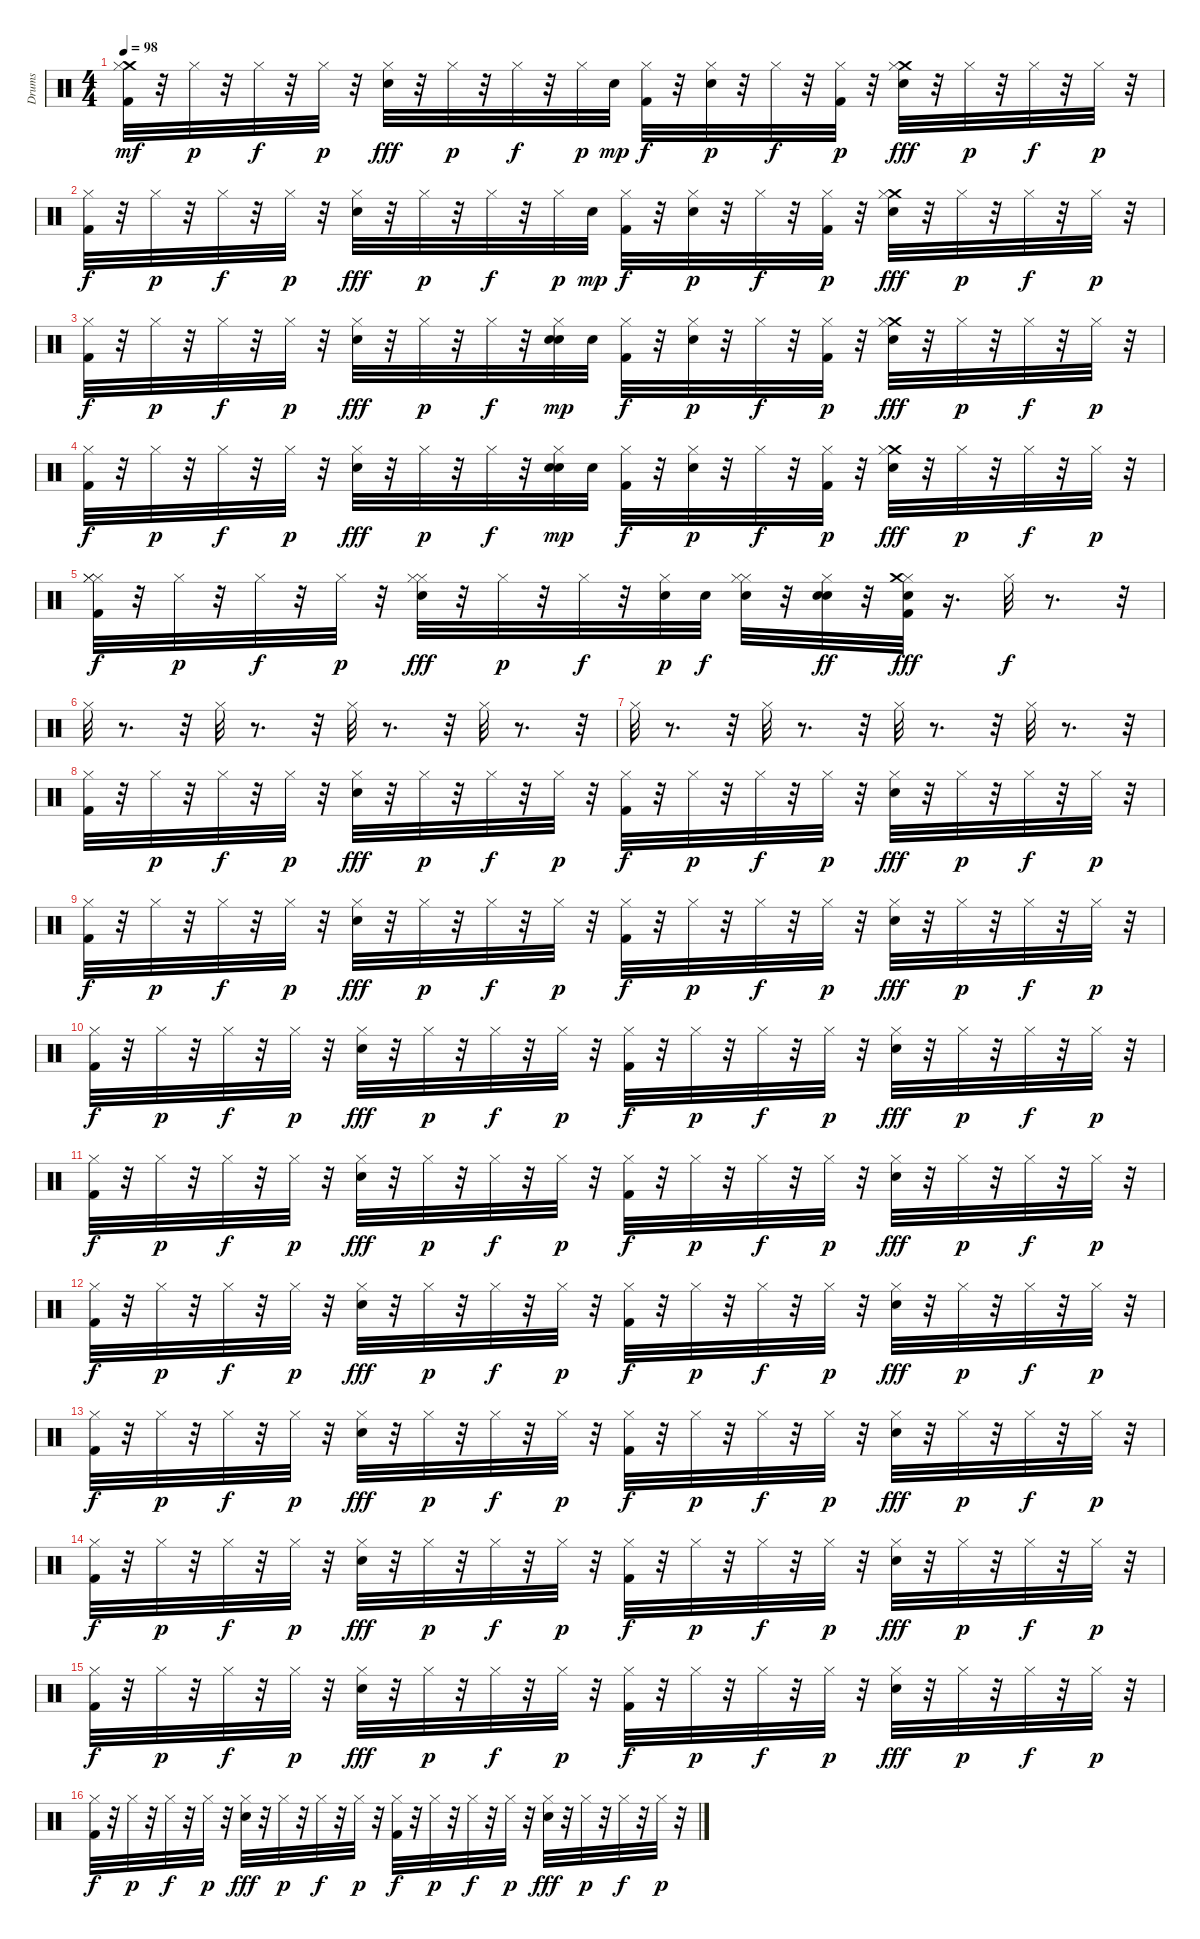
\track ("Drums" "Drums") {instrument percussion}
\staff {score}
\articulation defaults
\ts (4 4)
\tempo 98
\clef neutral
\ks c
("Crash medium (hit)" "Hi-Hat (closed)" "Kick (hit) 2").32{dy mf} r.32 "Hi-Hat (closed)".32{dy p} r.32 "Hi-Hat (closed)".32{dy f} r.32 "Hi-Hat (closed)".32{dy p} r.32 ("Hi-Hat (closed)" "Electric Snare (hit)").32{dy fff} r.32 "Hi-Hat (closed)".32{dy p} r.32 "Hi-Hat (closed)".32{dy f} r.32 "Hi-Hat (closed)".32{dy p} "Electric Snare (hit)".32{dy mp} ("Hi-Hat (closed)" "Kick (hit) 2").32{dy f} r.32 ("Hi-Hat (closed)" "Electric Snare (hit)").32{dy p} r.32 "Hi-Hat (closed)".32{dy f} r.32 ("Hi-Hat (closed)" "Kick (hit) 2").32{dy p} r.32 ("Crash medium (hit)" "Hi-Hat (closed)" "Electric Snare (hit)").32{dy fff} r.32 "Hi-Hat (closed)".32{dy p} r.32 "Hi-Hat (closed)".32{dy f} r.32 "Hi-Hat (closed)".32{dy p} r.32 |
("Hi-Hat (closed)" "Kick (hit) 2").32{dy f} r.32 "Hi-Hat (closed)".32{dy p} r.32 "Hi-Hat (closed)".32{dy f} r.32 "Hi-Hat (closed)".32{dy p} r.32 ("Hi-Hat (closed)" "Electric Snare (hit)").32{dy fff} r.32 "Hi-Hat (closed)".32{dy p} r.32 "Hi-Hat (closed)".32{dy f} r.32 "Hi-Hat (closed)".32{dy p} "Electric Snare (hit)".32{dy mp} ("Hi-Hat (closed)" "Kick (hit) 2").32{dy f} r.32 ("Hi-Hat (closed)" "Electric Snare (hit)").32{dy p} r.32 "Hi-Hat (closed)".32{dy f} r.32 ("Hi-Hat (closed)" "Kick (hit) 2").32{dy p} r.32 ("Crash medium (hit)" "Hi-Hat (closed)" "Electric Snare (hit)").32{dy fff} r.32 "Hi-Hat (closed)".32{dy p} r.32 "Hi-Hat (closed)".32{dy f} r.32 "Hi-Hat (closed)".32{dy p} r.32 |
("Hi-Hat (closed)" "Kick (hit) 2").32{dy f} r.32 "Hi-Hat (closed)".32{dy p} r.32 "Hi-Hat (closed)".32{dy f} r.32 "Hi-Hat (closed)".32{dy p} r.32 ("Hi-Hat (closed)" "Electric Snare (hit)").32{dy fff} r.32 "Hi-Hat (closed)".32{dy p} r.32 "Hi-Hat (closed)".32{dy f} r.32 ("Hi-Hat (closed)" "Electric Snare (hit)" "Electric Snare (hit)").32{dy mp} "Electric Snare (hit)".32 ("Hi-Hat (closed)" "Kick (hit) 2").32{dy f} r.32 ("Hi-Hat (closed)" "Electric Snare (hit)").32{dy p} r.32 "Hi-Hat (closed)".32{dy f} r.32 ("Hi-Hat (closed)" "Kick (hit) 2").32{dy p} r.32 ("Crash medium (hit)" "Hi-Hat (closed)" "Electric Snare (hit)").32{dy fff} r.32 "Hi-Hat (closed)".32{dy p} r.32 "Hi-Hat (closed)".32{dy f} r.32 "Hi-Hat (closed)".32{dy p} r.32 |
("Hi-Hat (closed)" "Kick (hit) 2").32{dy f} r.32 "Hi-Hat (closed)".32{dy p} r.32 "Hi-Hat (closed)".32{dy f} r.32 "Hi-Hat (closed)".32{dy p} r.32 ("Hi-Hat (closed)" "Electric Snare (hit)").32{dy fff} r.32 "Hi-Hat (closed)".32{dy p} r.32 "Hi-Hat (closed)".32{dy f} r.32 ("Hi-Hat (closed)" "Electric Snare (hit)" "Electric Snare (hit)").32{dy mp} "Electric Snare (hit)".32 ("Hi-Hat (closed)" "Kick (hit) 2").32{dy f} r.32 ("Hi-Hat (closed)" "Electric Snare (hit)").32{dy p} r.32 "Hi-Hat (closed)".32{dy f} r.32 ("Hi-Hat (closed)" "Kick (hit) 2").32{dy p} r.32 ("Crash medium (hit)" "Hi-Hat (closed)" "Electric Snare (hit)").32{dy fff} r.32 "Hi-Hat (closed)".32{dy p} r.32 "Hi-Hat (closed)".32{dy f} r.32 "Hi-Hat (closed)".32{dy p} r.32 |
("Hi-Hat (closed)" "Hi-Hat (closed)" "Kick (hit) 2" "Hi-Hat (closed)").32{dy f} r.32 "Hi-Hat (closed)".32{dy p} r.32 "Hi-Hat (closed)".32{dy f} r.32 "Hi-Hat (closed)".32{dy p} r.32 ("Hi-Hat (closed)" "Electric Snare (hit)" "Hi-Hat (closed)").32{dy fff} r.32 "Hi-Hat (closed)".32{dy p} r.32 "Hi-Hat (closed)".32{dy f} r.32 ("Hi-Hat (closed)" "Snare (hit) 2").32{dy p} "Snare (hit) 2".32{dy f} ("Hi-Hat (closed)" "Hi-Hat (closed)" "Electric Snare (hit)").32 r.32 ("Hi-Hat (closed)" "Electric Snare (hit)" "Electric Snare (hit)").32{dy ff} r.32 ("Hi-Hat (closed)" "Snare (hit) 2" "Crash medium (hit)" "Kick (hit) 2").32{dy fff} r.16{d} "Hi-Hat (closed)".32{dy f} r.8{d} r.32 |
"Hi-Hat (closed)".32 r.8{d} r.32 "Hi-Hat (closed)".32 r.8{d} r.32 "Hi-Hat (closed)".32 r.8{d} r.32 "Hi-Hat (closed)".32 r.8{d} r.32 |
"Hi-Hat (closed)".32 r.8{d} r.32 "Hi-Hat (closed)".32 r.8{d} r.32 "Hi-Hat (closed)".32 r.8{d} r.32 "Hi-Hat (closed)".32 r.8{d} r.32 |
("Hi-Hat (closed)" "Kick (hit) 2").32 r.32 "Hi-Hat (closed)".32{dy p} r.32 "Hi-Hat (closed)".32{dy f} r.32 "Hi-Hat (closed)".32{dy p} r.32 ("Hi-Hat (closed)" "Electric Snare (hit)").32{dy fff} r.32 "Hi-Hat (closed)".32{dy p} r.32 "Hi-Hat (closed)".32{dy f} r.32 "Hi-Hat (closed)".32{dy p} r.32 ("Hi-Hat (closed)" "Kick (hit) 2").32{dy f} r.32 "Hi-Hat (closed)".32{dy p} r.32 "Hi-Hat (closed)".32{dy f} r.32 "Hi-Hat (closed)".32{dy p} r.32 ("Hi-Hat (closed)" "Electric Snare (hit)").32{dy fff} r.32 "Hi-Hat (closed)".32{dy p} r.32 "Hi-Hat (closed)".32{dy f} r.32 "Hi-Hat (closed)".32{dy p} r.32 |
("Hi-Hat (closed)" "Kick (hit) 2").32{dy f} r.32 "Hi-Hat (closed)".32{dy p} r.32 "Hi-Hat (closed)".32{dy f} r.32 "Hi-Hat (closed)".32{dy p} r.32 ("Hi-Hat (closed)" "Electric Snare (hit)").32{dy fff} r.32 "Hi-Hat (closed)".32{dy p} r.32 "Hi-Hat (closed)".32{dy f} r.32 "Hi-Hat (closed)".32{dy p} r.32 ("Hi-Hat (closed)" "Kick (hit) 2").32{dy f} r.32 "Hi-Hat (closed)".32{dy p} r.32 "Hi-Hat (closed)".32{dy f} r.32 "Hi-Hat (closed)".32{dy p} r.32 ("Hi-Hat (closed)" "Electric Snare (hit)").32{dy fff} r.32 "Hi-Hat (closed)".32{dy p} r.32 "Hi-Hat (closed)".32{dy f} r.32 "Hi-Hat (closed)".32{dy p} r.32 |
("Hi-Hat (closed)" "Kick (hit) 2").32{dy f} r.32 "Hi-Hat (closed)".32{dy p} r.32 "Hi-Hat (closed)".32{dy f} r.32 "Hi-Hat (closed)".32{dy p} r.32 ("Hi-Hat (closed)" "Electric Snare (hit)").32{dy fff} r.32 "Hi-Hat (closed)".32{dy p} r.32 "Hi-Hat (closed)".32{dy f} r.32 "Hi-Hat (closed)".32{dy p} r.32 ("Hi-Hat (closed)" "Kick (hit) 2").32{dy f} r.32 "Hi-Hat (closed)".32{dy p} r.32 "Hi-Hat (closed)".32{dy f} r.32 "Hi-Hat (closed)".32{dy p} r.32 ("Hi-Hat (closed)" "Electric Snare (hit)").32{dy fff} r.32 "Hi-Hat (closed)".32{dy p} r.32 "Hi-Hat (closed)".32{dy f} r.32 "Hi-Hat (closed)".32{dy p} r.32 |
("Hi-Hat (closed)" "Kick (hit) 2").32{dy f} r.32 "Hi-Hat (closed)".32{dy p} r.32 "Hi-Hat (closed)".32{dy f} r.32 "Hi-Hat (closed)".32{dy p} r.32 ("Hi-Hat (closed)" "Electric Snare (hit)").32{dy fff} r.32 "Hi-Hat (closed)".32{dy p} r.32 "Hi-Hat (closed)".32{dy f} r.32 "Hi-Hat (closed)".32{dy p} r.32 ("Hi-Hat (closed)" "Kick (hit) 2").32{dy f} r.32 "Hi-Hat (closed)".32{dy p} r.32 "Hi-Hat (closed)".32{dy f} r.32 "Hi-Hat (closed)".32{dy p} r.32 ("Hi-Hat (closed)" "Electric Snare (hit)").32{dy fff} r.32 "Hi-Hat (closed)".32{dy p} r.32 "Hi-Hat (closed)".32{dy f} r.32 "Hi-Hat (closed)".32{dy p} r.32 |
("Hi-Hat (closed)" "Kick (hit) 2").32{dy f} r.32 "Hi-Hat (closed)".32{dy p} r.32 "Hi-Hat (closed)".32{dy f} r.32 "Hi-Hat (closed)".32{dy p} r.32 ("Hi-Hat (closed)" "Electric Snare (hit)").32{dy fff} r.32 "Hi-Hat (closed)".32{dy p} r.32 "Hi-Hat (closed)".32{dy f} r.32 "Hi-Hat (closed)".32{dy p} r.32 ("Hi-Hat (closed)" "Kick (hit) 2").32{dy f} r.32 "Hi-Hat (closed)".32{dy p} r.32 "Hi-Hat (closed)".32{dy f} r.32 "Hi-Hat (closed)".32{dy p} r.32 ("Hi-Hat (closed)" "Electric Snare (hit)").32{dy fff} r.32 "Hi-Hat (closed)".32{dy p} r.32 "Hi-Hat (closed)".32{dy f} r.32 "Hi-Hat (closed)".32{dy p} r.32 |
("Hi-Hat (closed)" "Kick (hit) 2").32{dy f} r.32 "Hi-Hat (closed)".32{dy p} r.32 "Hi-Hat (closed)".32{dy f} r.32 "Hi-Hat (closed)".32{dy p} r.32 ("Hi-Hat (closed)" "Electric Snare (hit)").32{dy fff} r.32 "Hi-Hat (closed)".32{dy p} r.32 "Hi-Hat (closed)".32{dy f} r.32 "Hi-Hat (closed)".32{dy p} r.32 ("Hi-Hat (closed)" "Kick (hit) 2").32{dy f} r.32 "Hi-Hat (closed)".32{dy p} r.32 "Hi-Hat (closed)".32{dy f} r.32 "Hi-Hat (closed)".32{dy p} r.32 ("Hi-Hat (closed)" "Electric Snare (hit)").32{dy fff} r.32 "Hi-Hat (closed)".32{dy p} r.32 "Hi-Hat (closed)".32{dy f} r.32 "Hi-Hat (closed)".32{dy p} r.32 |
("Hi-Hat (closed)" "Kick (hit) 2").32{dy f} r.32 "Hi-Hat (closed)".32{dy p} r.32 "Hi-Hat (closed)".32{dy f} r.32 "Hi-Hat (closed)".32{dy p} r.32 ("Hi-Hat (closed)" "Electric Snare (hit)").32{dy fff} r.32 "Hi-Hat (closed)".32{dy p} r.32 "Hi-Hat (closed)".32{dy f} r.32 "Hi-Hat (closed)".32{dy p} r.32 ("Hi-Hat (closed)" "Kick (hit) 2").32{dy f} r.32 "Hi-Hat (closed)".32{dy p} r.32 "Hi-Hat (closed)".32{dy f} r.32 "Hi-Hat (closed)".32{dy p} r.32 ("Hi-Hat (closed)" "Electric Snare (hit)").32{dy fff} r.32 "Hi-Hat (closed)".32{dy p} r.32 "Hi-Hat (closed)".32{dy f} r.32 "Hi-Hat (closed)".32{dy p} r.32 |
("Hi-Hat (closed)" "Kick (hit) 2").32{dy f} r.32 "Hi-Hat (closed)".32{dy p} r.32 "Hi-Hat (closed)".32{dy f} r.32 "Hi-Hat (closed)".32{dy p} r.32 ("Hi-Hat (closed)" "Electric Snare (hit)").32{dy fff} r.32 "Hi-Hat (closed)".32{dy p} r.32 "Hi-Hat (closed)".32{dy f} r.32 "Hi-Hat (closed)".32{dy p} r.32 ("Hi-Hat (closed)" "Kick (hit) 2").32{dy f} r.32 "Hi-Hat (closed)".32{dy p} r.32 "Hi-Hat (closed)".32{dy f} r.32 "Hi-Hat (closed)".32{dy p} r.32 ("Hi-Hat (closed)" "Electric Snare (hit)").32{dy fff} r.32 "Hi-Hat (closed)".32{dy p} r.32 "Hi-Hat (closed)".32{dy f} r.32 "Hi-Hat (closed)".32{dy p} r.32 |
("Hi-Hat (closed)" "Kick (hit) 2").32{dy f} r.32 "Hi-Hat (closed)".32{dy p} r.32 "Hi-Hat (closed)".32{dy f} r.32 "Hi-Hat (closed)".32{dy p} r.32 ("Hi-Hat (closed)" "Electric Snare (hit)").32{dy fff} r.32 "Hi-Hat (closed)".32{dy p} r.32 "Hi-Hat (closed)".32{dy f} r.32 "Hi-Hat (closed)".32{dy p} r.32 ("Hi-Hat (closed)" "Kick (hit) 2").32{dy f} r.32 "Hi-Hat (closed)".32{dy p} r.32 "Hi-Hat (closed)".32{dy f} r.32 "Hi-Hat (closed)".32{dy p} r.32 ("Hi-Hat (closed)" "Electric Snare (hit)").32{dy fff} r.32 "Hi-Hat (closed)".32{dy p} r.32 "Hi-Hat (closed)".32{dy f} r.32 "Hi-Hat (closed)".32{dy p} r.32
